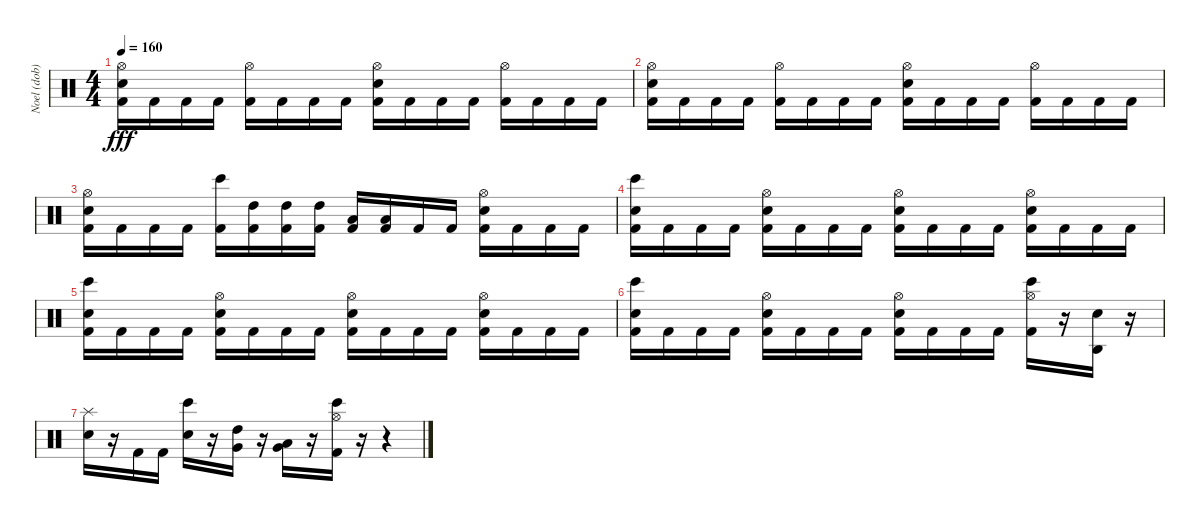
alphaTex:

\track ("Noel (dob)" "Noel (dob)") {instrument percussion}
\staff {score}
\articulation defaults
\ts (4 4)
\tempo 160
\clef neutral
\ks c
("Kick (hit) 2" "Snare (hit) 2" "Hi-Hat (open)").16{dy fff} "Kick (hit) 2".16 "Kick (hit) 2".16 "Kick (hit) 2".16 ("Kick (hit) 2" "Hi-Hat (open)").16 "Kick (hit) 2".16 "Kick (hit) 2".16 "Kick (hit) 2".16 ("Kick (hit) 2" "Snare (hit) 2" "Hi-Hat (open)").16 "Kick (hit) 2".16 "Kick (hit) 2".16 "Kick (hit) 2".16 ("Kick (hit) 2" "Hi-Hat (open)").16 "Kick (hit) 2".16 "Kick (hit) 2".16 "Kick (hit) 2".16 |
("Hi-Hat (open)" "Kick (hit) 2" "Snare (hit) 2").16 "Kick (hit) 2".16 "Kick (hit) 2".16 "Kick (hit) 2".16 ("Kick (hit) 2" "Hi-Hat (open)").16 "Kick (hit) 2".16 "Kick (hit) 2".16 "Kick (hit) 2".16 ("Kick (hit) 2" "Snare (hit) 2" "Hi-Hat (open)").16 "Kick (hit) 2".16 "Kick (hit) 2".16 "Kick (hit) 2".16 ("Kick (hit) 2" "Hi-Hat (open)").16 "Kick (hit) 2".16 "Kick (hit) 2".16 "Kick (hit) 2".16 |
("Kick (hit) 2" "Snare (hit) 2" "Hi-Hat (open)").16 "Kick (hit) 2".16 "Kick (hit) 2".16 "Kick (hit) 2".16 ("Bongo High (hit)" "Kick (hit) 2").16 ("Kick (hit) 2" "High Tom (hit)").16 ("High Tom (hit)" "Kick (hit) 2").16 ("High Tom (hit)" "Kick (hit) 2").16 ("Low Tom (hit)" "Kick (hit) 2").16 ("Kick (hit) 2" "Low Tom (hit)").16 "Kick (hit) 2".16 "Kick (hit) 2".16 ("Hi-Hat (open)" "Kick (hit) 2" "Snare (hit) 2").16 "Kick (hit) 2".16 "Kick (hit) 2".16 "Kick (hit) 2".16 |
("Kick (hit) 2" "Snare (hit) 2" "Bongo High (hit)").16 "Kick (hit) 2".16 "Kick (hit) 2".16 "Kick (hit) 2".16 ("Hi-Hat (open)" "Kick (hit) 2" "Snare (hit) 2").16 "Kick (hit) 2".16 "Kick (hit) 2".16 "Kick (hit) 2".16 ("Hi-Hat (open)" "Kick (hit) 2" "Snare (hit) 2").16 "Kick (hit) 2".16 "Kick (hit) 2".16 "Kick (hit) 2".16 ("Hi-Hat (open)" "Kick (hit) 2" "Snare (hit) 2").16 "Kick (hit) 2".16 "Kick (hit) 2".16 "Kick (hit) 2".16 |
("Kick (hit) 2" "Snare (hit) 2" "Bongo High (hit)").16 "Kick (hit) 2".16 "Kick (hit) 2".16 "Kick (hit) 2".16 ("Kick (hit) 2" "Snare (hit) 2" "Hi-Hat (open)").16 "Kick (hit) 2".16 "Kick (hit) 2".16 "Kick (hit) 2".16 ("Kick (hit) 2" "Snare (hit) 2" "Hi-Hat (open)").16 "Kick (hit) 2".16 "Kick (hit) 2".16 "Kick (hit) 2".16 ("Kick (hit) 2" "Snare (hit) 2" "Hi-Hat (open)").16 "Kick (hit) 2".16 "Kick (hit) 2".16 "Kick (hit) 2".16 |
("Bongo High (hit)" "Kick (hit) 2" "Snare (hit) 2").16 "Kick (hit) 2".16 "Kick (hit) 2".16 "Kick (hit) 2".16 ("Hi-Hat (open)" "Kick (hit) 2" "Snare (hit) 2").16 "Kick (hit) 2".16 "Kick (hit) 2".16 "Kick (hit) 2".16 ("Hi-Hat (open)" "Kick (hit) 2" "Snare (hit) 2").16 "Kick (hit) 2".16 "Kick (hit) 2".16 "Kick (hit) 2".16 ("Hi-Hat (open)" "Bongo High (hit)" "Kick (hit) 2").16 r.16 ("Snare (hit) 2" "Agogo high (hit)").16 r.16 |
("Snare (hit) 2" "Splash (hit)").16 r.16 "Kick (hit) 2".16 "Kick (hit) 2".16 ("Bongo High (hit)" "Snare (hit) 2").16 r.16 ("High Tom (hit)" "Very Low Tom (hit)").16 r.16 ("Very Low Tom (hit)" "Low Tom (hit)").16 r.16 ("Bongo High (hit)" "Kick (hit) 2" "Hi-Hat (open)").16 r.16 r.4
